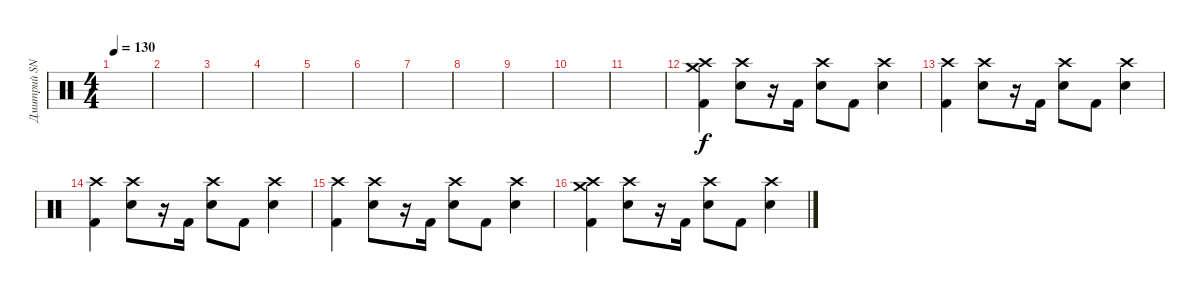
\track ("Дмитрий SNAKE Хакимов" "Дмитрий SN") {instrument percussion}
\staff {score}
\articulation defaults
\ts (4 4)
\tempo 130
\clef neutral
\ks c
|
|
|
|
|
|
|
|
|
|
|
("Crash high (hit)" "Crash medium (hit)" "Kick (hit) 2").4 ("Crash high (hit)" "Snare (hit) 2").8 r.16 "Kick (hit) 2".16 ("Crash high (hit)" "Snare (hit) 2").8 "Kick (hit) 2".8 ("Crash high (hit)" "Snare (hit) 2").4 |
("Crash high (hit)" "Kick (hit) 2").4 ("Crash high (hit)" "Snare (hit) 2").8 r.16 "Kick (hit) 2".16 ("Crash high (hit)" "Snare (hit) 2").8 "Kick (hit) 2".8 ("Crash high (hit)" "Snare (hit) 2").4 |
("Crash high (hit)" "Kick (hit) 2").4 ("Crash high (hit)" "Snare (hit) 2").8 r.16 "Kick (hit) 2".16 ("Crash high (hit)" "Snare (hit) 2").8 "Kick (hit) 2".8 ("Crash high (hit)" "Snare (hit) 2").4 |
("Crash high (hit)" "Kick (hit) 2").4 ("Crash high (hit)" "Snare (hit) 2").8 r.16 "Kick (hit) 2".16 ("Crash high (hit)" "Snare (hit) 2").8 "Kick (hit) 2".8 ("Crash high (hit)" "Snare (hit) 2").4 |
("Crash high (hit)" "Crash medium (hit)" "Kick (hit) 2").4 ("Crash high (hit)" "Snare (hit) 2").8 r.16 "Kick (hit) 2".16 ("Crash high (hit)" "Snare (hit) 2").8 "Kick (hit) 2".8 ("Crash high (hit)" "Snare (hit) 2").4
